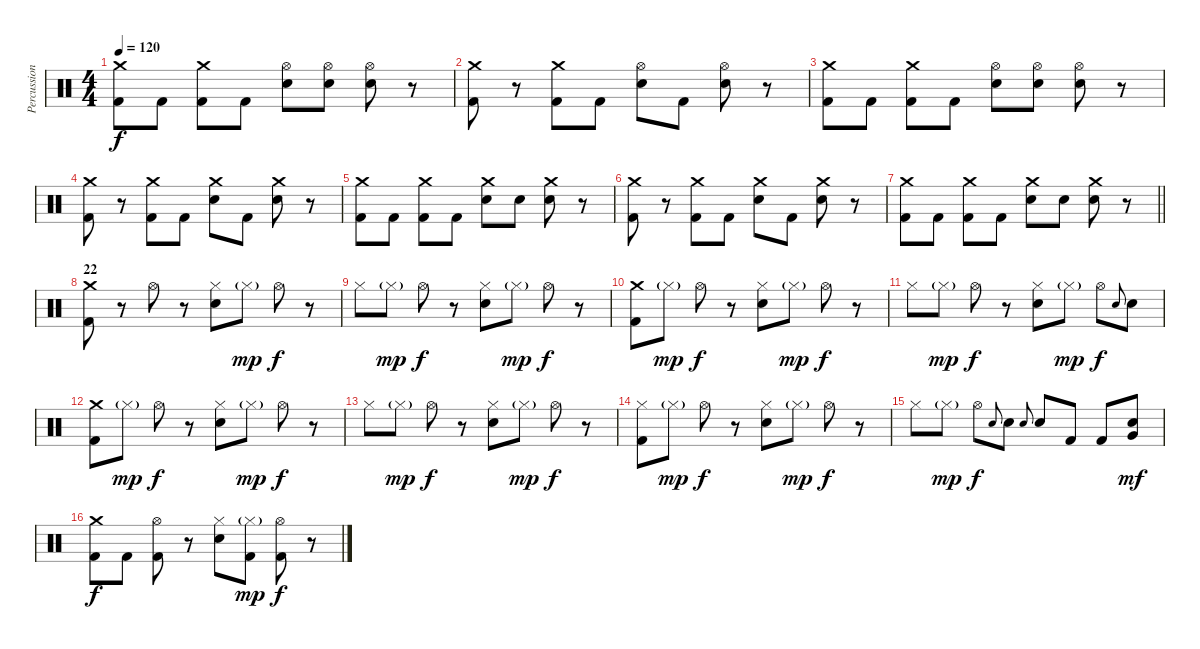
\track ("Percussion" "Percussion") {instrument percussion}
\staff {score}
\articulation defaults
\ts (4 4)
\tempo 120
\clef neutral
\ks c
("Crash medium (hit)" "Kick (hit) 2").8{dy f} "Kick (hit) 2".8 ("Crash medium (hit)" "Kick (hit) 2").8 "Kick (hit) 2".8 ("Hi-Hat (open)" "Snare (hit) 2").8 ("Hi-Hat (open)" "Snare (hit) 2").8 ("Hi-Hat (open)" "Snare (hit) 2").8 r.8 |
("Crash medium (hit)" "Kick (hit) 2").8 r.8 ("Crash medium (hit)" "Kick (hit) 2").8 "Kick (hit) 2".8 ("Hi-Hat (open)" "Snare (hit) 2").8 "Kick (hit) 2".8 ("Hi-Hat (open)" "Snare (hit) 2").8 r.8 |
("Crash medium (hit)" "Kick (hit) 2").8 "Kick (hit) 2".8 ("Crash medium (hit)" "Kick (hit) 2").8 "Kick (hit) 2".8 ("Hi-Hat (open)" "Snare (hit) 2").8 ("Hi-Hat (open)" "Snare (hit) 2").8 ("Hi-Hat (open)" "Snare (hit) 2").8 r.8 |
("Crash medium (hit)" "Kick (hit) 2").8 r.8 ("Crash medium (hit)" "Kick (hit) 2").8 "Kick (hit) 2".8 ("Crash medium (hit)" "Snare (hit) 2").8 "Kick (hit) 2".8 ("Crash medium (hit)" "Snare (hit) 2").8 r.8 |
("Crash medium (hit)" "Kick (hit) 2").8 "Kick (hit) 2".8 ("Crash medium (hit)" "Kick (hit) 2").8 "Kick (hit) 2".8 ("Crash medium (hit)" "Snare (hit) 2").8 "Snare (hit) 2".8 ("Crash medium (hit)" "Snare (hit) 2").8 r.8 |
("Crash medium (hit)" "Kick (hit) 2").8 r.8 ("Crash medium (hit)" "Kick (hit) 2").8 "Kick (hit) 2".8 ("Crash medium (hit)" "Snare (hit) 2").8 "Kick (hit) 2".8 ("Crash medium (hit)" "Snare (hit) 2").8 r.8 |
\barLineRight lightlight
("Crash medium (hit)" "Kick (hit) 2").8 "Kick (hit) 2".8 ("Crash medium (hit)" "Kick (hit) 2").8 "Kick (hit) 2".8 ("Crash medium (hit)" "Snare (hit) 2").8 "Snare (hit) 2".8 ("Crash medium (hit)" "Snare (hit) 2").8 r.8 |
\section ("" "22")
("Crash medium (hit)" "Kick (hit) 2").8 r.8 "Hi-Hat (open)".8 r.8 ("Hi-Hat (closed)" "Snare (hit) 2").8 "Hi-Hat (closed)"{g}.8{dy mp} "Hi-Hat (open)".8{dy f} r.8 |
"Hi-Hat (closed)".8 "Hi-Hat (closed)"{g}.8{dy mp} "Hi-Hat (open)".8{dy f} r.8 ("Hi-Hat (closed)" "Snare (hit) 2").8 "Hi-Hat (closed)"{g}.8{dy mp} "Hi-Hat (open)".8{dy f} r.8 |
("Crash medium (hit)" "Kick (hit) 2").8 "Hi-Hat (closed)"{g}.8{dy mp} "Hi-Hat (open)".8{dy f} r.8 ("Hi-Hat (closed)" "Snare (hit) 2").8 "Hi-Hat (closed)"{g}.8{dy mp} "Hi-Hat (open)".8{dy f} r.8 |
"Hi-Hat (closed)".8 "Hi-Hat (closed)"{g}.8{dy mp} "Hi-Hat (open)".8{dy f} r.8 ("Hi-Hat (closed)" "Snare (hit) 2").8 "Hi-Hat (closed)"{g}.8{dy mp} "Hi-Hat (open)".8{dy f} "Snare (hit) 2".8{gr onbeat} "Snare (hit) 2".8 |
("Crash medium (hit)" "Kick (hit) 2").8 "Hi-Hat (closed)"{g}.8{dy mp} "Hi-Hat (open)".8{dy f} r.8 ("Hi-Hat (closed)" "Snare (hit) 2").8 "Hi-Hat (closed)"{g}.8{dy mp} "Hi-Hat (open)".8{dy f} r.8 |
"Hi-Hat (closed)".8 "Hi-Hat (closed)"{g}.8{dy mp} "Hi-Hat (open)".8{dy f} r.8 ("Hi-Hat (closed)" "Snare (hit) 2").8 "Hi-Hat (closed)"{g}.8{dy mp} "Hi-Hat (open)".8{dy f} r.8 |
("Hi-Hat (closed)" "Kick (hit) 2").8 "Hi-Hat (closed)"{g}.8{dy mp} "Hi-Hat (open)".8{dy f} r.8 ("Hi-Hat (closed)" "Snare (hit) 2").8 "Hi-Hat (closed)"{g}.8{dy mp} "Hi-Hat (open)".8{dy f} r.8 |
"Hi-Hat (closed)".8 "Hi-Hat (closed)"{g}.8{dy mp} "Hi-Hat (open)".8{dy f} "Snare (hit) 2".8{gr onbeat} "Snare (hit) 2".8 "Snare (hit) 2".8{gr onbeat} "Snare (hit) 2".8 "Kick (hit) 2".8 "Kick (hit) 2".8 ("Snare (hit) 2" "Very Low Tom (hit)").8{bu 60 dy mf} |
("Crash medium (hit)" "Kick (hit) 2").8{dy f} "Kick (hit) 2".8 ("Hi-Hat (open)" "Kick (hit) 2").8 r.8 ("Hi-Hat (closed)" "Snare (hit) 2").8 ("Hi-Hat (closed)"{g} "Kick (hit) 2").8{dy mp} ("Hi-Hat (open)" "Kick (hit) 2").8{dy f} r.8
